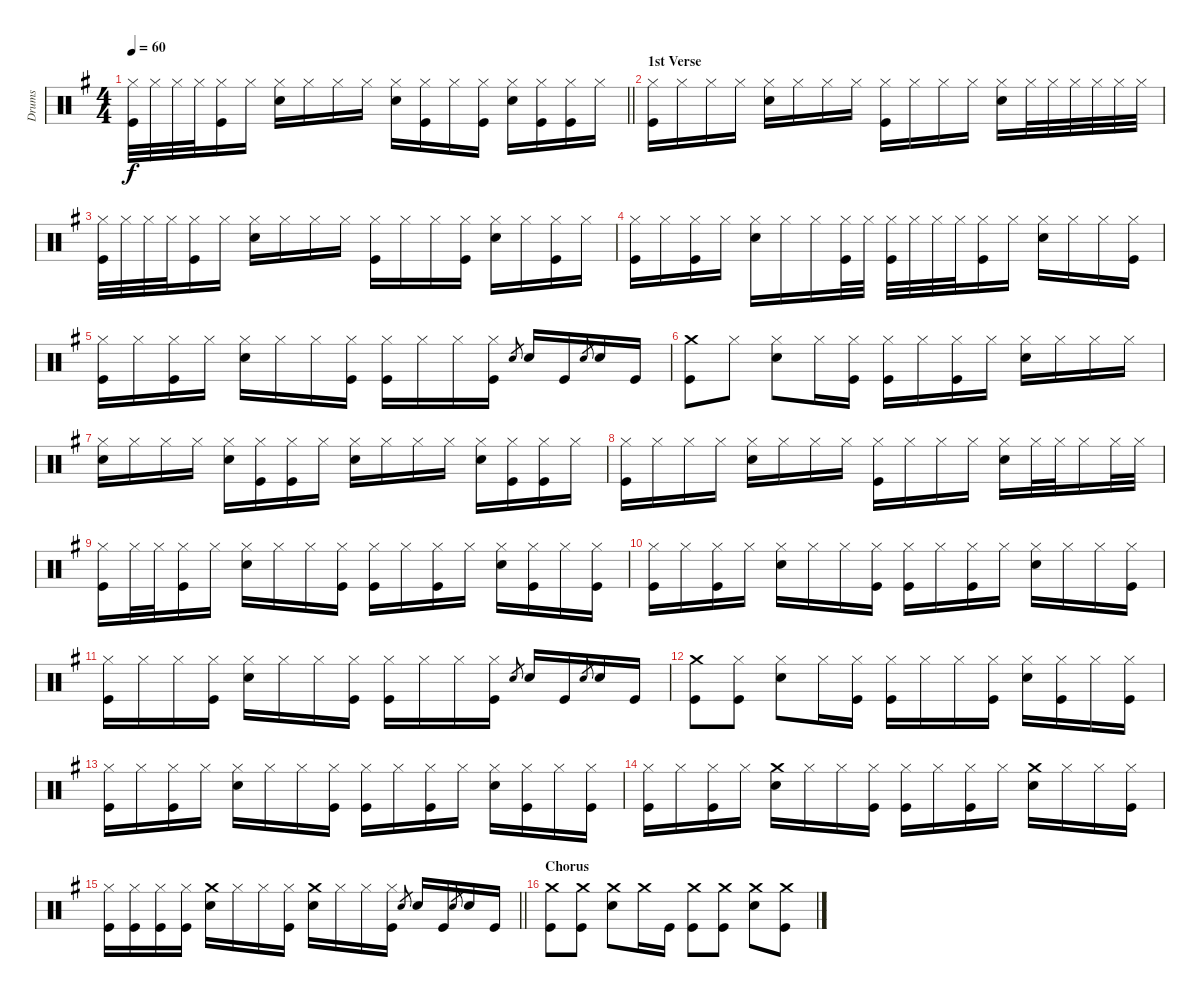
\track ("Drums" "Drums") {instrument percussion}
\staff {score}
\articulation defaults
\ts (4 4)
\tempo 60
\clef neutral
\barLineRight lightlight
\ks g
("Kick (hit)" "Hi-Hat (closed)").32{dy f} "Hi-Hat (closed)".32 "Hi-Hat (closed)".32 "Hi-Hat (closed)".32 ("Kick (hit)" "Hi-Hat (closed)").16 "Hi-Hat (closed)".16 ("Electric Snare (hit)" "Hi-Hat (closed)").16 "Hi-Hat (closed)".16 "Hi-Hat (closed)".16 "Hi-Hat (closed)".16 ("Electric Snare (hit)" "Hi-Hat (closed)").16 ("Kick (hit)" "Hi-Hat (closed)").16 "Hi-Hat (closed)".16 ("Kick (hit)" "Hi-Hat (closed)").16 ("Electric Snare (hit)" "Hi-Hat (closed)").16 ("Kick (hit)" "Hi-Hat (closed)").16 ("Kick (hit)" "Hi-Hat (closed)").16 "Hi-Hat (closed)".16 |
\section ("" "1st Verse")
("Kick (hit)" "Hi-Hat (closed)").16 "Hi-Hat (closed)".16 "Hi-Hat (closed)".16 "Hi-Hat (closed)".16 ("Electric Snare (hit)" "Hi-Hat (closed)").16 "Hi-Hat (closed)".16 "Hi-Hat (closed)".16 "Hi-Hat (closed)".16 ("Kick (hit)" "Hi-Hat (closed)").16 "Hi-Hat (closed)".16 "Hi-Hat (closed)".16 "Hi-Hat (closed)".16 ("Electric Snare (hit)" "Hi-Hat (closed)").16 "Hi-Hat (closed)".32 "Hi-Hat (closed)".32 "Hi-Hat (closed)".32 "Hi-Hat (closed)".32 "Hi-Hat (closed)".32 "Hi-Hat (closed)".32 |
("Kick (hit)" "Hi-Hat (closed)").32 "Hi-Hat (closed)".32 "Hi-Hat (closed)".32 "Hi-Hat (closed)".32 ("Kick (hit)" "Hi-Hat (closed)").16 "Hi-Hat (closed)".16 ("Electric Snare (hit)" "Hi-Hat (closed)").16 "Hi-Hat (closed)".16 "Hi-Hat (closed)".16 "Hi-Hat (closed)".16 ("Kick (hit)" "Hi-Hat (closed)").16 "Hi-Hat (closed)".16 "Hi-Hat (closed)".16 ("Kick (hit)" "Hi-Hat (closed)").16 ("Electric Snare (hit)" "Hi-Hat (closed)").16 "Hi-Hat (closed)".16 ("Kick (hit)" "Hi-Hat (closed)").16 "Hi-Hat (closed)".16 |
("Kick (hit)" "Hi-Hat (closed)").16 "Hi-Hat (closed)".16 ("Kick (hit)" "Hi-Hat (closed)").16 "Hi-Hat (closed)".16 ("Electric Snare (hit)" "Hi-Hat (closed)").16 "Hi-Hat (closed)".16 "Hi-Hat (closed)".16 ("Kick (hit)" "Hi-Hat (closed)").32 "Hi-Hat (closed)".32 ("Kick (hit)" "Hi-Hat (closed)").32 "Hi-Hat (closed)".32 "Hi-Hat (closed)".32 "Hi-Hat (closed)".32 ("Kick (hit)" "Hi-Hat (closed)").16 "Hi-Hat (closed)".16 ("Electric Snare (hit)" "Hi-Hat (closed)").16 "Hi-Hat (closed)".16 "Hi-Hat (closed)".16 ("Kick (hit)" "Hi-Hat (closed)").16 |
("Kick (hit)" "Hi-Hat (closed)").16 "Hi-Hat (closed)".16 ("Kick (hit)" "Hi-Hat (closed)").16 "Hi-Hat (closed)".16 ("Electric Snare (hit)" "Hi-Hat (closed)").16 "Hi-Hat (closed)".16 "Hi-Hat (closed)".16 ("Kick (hit)" "Hi-Hat (closed)").16 ("Kick (hit)" "Hi-Hat (closed)").16 "Hi-Hat (closed)".16 "Hi-Hat (closed)".16 ("Kick (hit)" "Hi-Hat (closed)").16 "Electric Snare (hit)".8{gr} "Electric Snare (hit)".16 "Kick (hit)".16 "Electric Snare (hit)".8{gr} "Electric Snare (hit)".16 "Kick (hit)".16 |
("Kick (hit)" "Crash medium (hit)").8 "Hi-Hat (closed)".8 ("Electric Snare (hit)" "Hi-Hat (closed)").8 "Hi-Hat (closed)".16 ("Kick (hit)" "Hi-Hat (closed)").16 ("Kick (hit)" "Hi-Hat (closed)").16 "Hi-Hat (closed)".16 ("Kick (hit)" "Hi-Hat (closed)").16 "Hi-Hat (closed)".16 ("Electric Snare (hit)" "Hi-Hat (closed)").16 "Hi-Hat (closed)".16 "Hi-Hat (closed)".16 "Hi-Hat (closed)".16 |
("Electric Snare (hit)" "Hi-Hat (closed)").16 "Hi-Hat (closed)".16 "Hi-Hat (closed)".16 "Hi-Hat (closed)".16 ("Electric Snare (hit)" "Hi-Hat (closed)").16 ("Kick (hit)" "Hi-Hat (closed)").16 ("Kick (hit)" "Hi-Hat (closed)").16 "Hi-Hat (closed)".16 ("Electric Snare (hit)" "Hi-Hat (closed)").16 "Hi-Hat (closed)".16 "Hi-Hat (closed)".16 "Hi-Hat (closed)".16 ("Electric Snare (hit)" "Hi-Hat (closed)").16 ("Kick (hit)" "Hi-Hat (closed)").16 ("Kick (hit)" "Hi-Hat (closed)").16 "Hi-Hat (closed)".16 |
("Kick (hit)" "Hi-Hat (closed)").16 "Hi-Hat (closed)".16 "Hi-Hat (closed)".16 "Hi-Hat (closed)".16 ("Electric Snare (hit)" "Hi-Hat (closed)").16 "Hi-Hat (closed)".16 "Hi-Hat (closed)".16 "Hi-Hat (closed)".16 ("Kick (hit)" "Hi-Hat (closed)").16 "Hi-Hat (closed)".16 "Hi-Hat (closed)".16 "Hi-Hat (closed)".16 ("Electric Snare (hit)" "Hi-Hat (closed)").16 "Hi-Hat (closed)".32 "Hi-Hat (closed)".32 "Hi-Hat (closed)".16 "Hi-Hat (closed)".32 "Hi-Hat (closed)".32 |
("Kick (hit)" "Hi-Hat (closed)").16 "Hi-Hat (closed)".32 "Hi-Hat (closed)".32 ("Kick (hit)" "Hi-Hat (closed)").16 "Hi-Hat (closed)".16 ("Electric Snare (hit)" "Hi-Hat (closed)").16 "Hi-Hat (closed)".16 "Hi-Hat (closed)".16 ("Kick (hit)" "Hi-Hat (closed)").16 ("Kick (hit)" "Hi-Hat (closed)").16 "Hi-Hat (closed)".16 ("Kick (hit)" "Hi-Hat (closed)").16 "Hi-Hat (closed)".16 ("Electric Snare (hit)" "Hi-Hat (closed)").16 ("Kick (hit)" "Hi-Hat (closed)").16 "Hi-Hat (closed)".16 ("Kick (hit)" "Hi-Hat (closed)").16 |
("Kick (hit)" "Hi-Hat (closed)").16 "Hi-Hat (closed)".16 ("Kick (hit)" "Hi-Hat (closed)").16 "Hi-Hat (closed)".16 ("Electric Snare (hit)" "Hi-Hat (closed)").16 "Hi-Hat (closed)".16 "Hi-Hat (closed)".16 ("Kick (hit)" "Hi-Hat (closed)").16 ("Kick (hit)" "Hi-Hat (closed)").16 "Hi-Hat (closed)".16 ("Kick (hit)" "Hi-Hat (closed)").16 "Hi-Hat (closed)".16 ("Electric Snare (hit)" "Hi-Hat (closed)").16 "Hi-Hat (closed)".16 "Hi-Hat (closed)".16 ("Kick (hit)" "Hi-Hat (closed)").16 |
("Kick (hit)" "Hi-Hat (closed)").16 "Hi-Hat (closed)".16 "Hi-Hat (closed)".16 ("Kick (hit)" "Hi-Hat (closed)").16 ("Electric Snare (hit)" "Hi-Hat (closed)").16 "Hi-Hat (closed)".16 "Hi-Hat (closed)".16 ("Kick (hit)" "Hi-Hat (closed)").16 ("Kick (hit)" "Hi-Hat (closed)").16 "Hi-Hat (closed)".16 "Hi-Hat (closed)".16 ("Kick (hit)" "Hi-Hat (closed)").16 "Electric Snare (hit)".8{gr} "Electric Snare (hit)".16 "Kick (hit)".16 "Electric Snare (hit)".8{gr} "Electric Snare (hit)".16 "Kick (hit)".16 |
("Kick (hit)" "Crash medium (hit)").8 ("Kick (hit)" "Hi-Hat (closed)").8 ("Electric Snare (hit)" "Hi-Hat (closed)").8 "Hi-Hat (closed)".16 ("Kick (hit)" "Hi-Hat (closed)").16 ("Kick (hit)" "Hi-Hat (closed)").16 "Hi-Hat (closed)".16 "Hi-Hat (closed)".16 ("Kick (hit)" "Hi-Hat (closed)").16 ("Electric Snare (hit)" "Hi-Hat (closed)").16 ("Kick (hit)" "Hi-Hat (closed)").16 "Hi-Hat (closed)".16 ("Kick (hit)" "Hi-Hat (closed)").16 |
("Kick (hit)" "Hi-Hat (closed)").16 "Hi-Hat (closed)".16 ("Kick (hit)" "Hi-Hat (closed)").16 "Hi-Hat (closed)".16 ("Electric Snare (hit)" "Hi-Hat (closed)").16 "Hi-Hat (closed)".16 "Hi-Hat (closed)".16 ("Kick (hit)" "Hi-Hat (closed)").16 ("Kick (hit)" "Hi-Hat (closed)").16 "Hi-Hat (closed)".16 ("Kick (hit)" "Hi-Hat (closed)").16 "Hi-Hat (closed)".16 ("Electric Snare (hit)" "Hi-Hat (closed)").16 ("Kick (hit)" "Hi-Hat (closed)").16 "Hi-Hat (closed)".16 ("Kick (hit)" "Hi-Hat (closed)").16 |
("Kick (hit)" "Hi-Hat (closed)").16 "Hi-Hat (closed)".16 ("Kick (hit)" "Hi-Hat (closed)").16 "Hi-Hat (closed)".16 ("Electric Snare (hit)" "Crash medium (hit)").16 "Hi-Hat (closed)".16 "Hi-Hat (closed)".16 ("Kick (hit)" "Hi-Hat (closed)").16 ("Kick (hit)" "Hi-Hat (closed)").16 "Hi-Hat (closed)".16 ("Kick (hit)" "Hi-Hat (closed)").16 "Hi-Hat (closed)".16 ("Electric Snare (hit)" "Crash medium (hit)").16 "Hi-Hat (closed)".16 "Hi-Hat (closed)".16 ("Kick (hit)" "Hi-Hat (closed)").16 |
\barLineRight lightlight
("Kick (hit)" "Hi-Hat (closed)").16 ("Kick (hit)" "Hi-Hat (closed)").16 ("Kick (hit)" "Hi-Hat (closed)").16 ("Kick (hit)" "Hi-Hat (closed)").16 ("Electric Snare (hit)" "Crash medium (hit)").16 "Hi-Hat (closed)".16 "Hi-Hat (closed)".16 ("Kick (hit)" "Hi-Hat (closed)").16 ("Electric Snare (hit)" "Crash medium (hit)").16 "Hi-Hat (closed)".16 "Hi-Hat (closed)".16 ("Kick (hit)" "Hi-Hat (closed)").16 "Electric Snare (hit)".8{gr} "Electric Snare (hit)".16 "Kick (hit)".16 "Electric Snare (hit)".8{gr} "Electric Snare (hit)".16 "Kick (hit)".16 |
\section ("" "Chorus")
("Kick (hit)" "Crash medium (hit)").8 ("Kick (hit)" "Crash medium (hit)").8 ("Electric Snare (hit)" "Crash medium (hit)").8 "Crash medium (hit)".16 "Kick (hit)".16 ("Kick (hit)" "Crash medium (hit)").8 ("Kick (hit)" "Crash medium (hit)").8 ("Electric Snare (hit)" "Crash medium (hit)").8 ("Kick (hit)" "Crash medium (hit)").8
